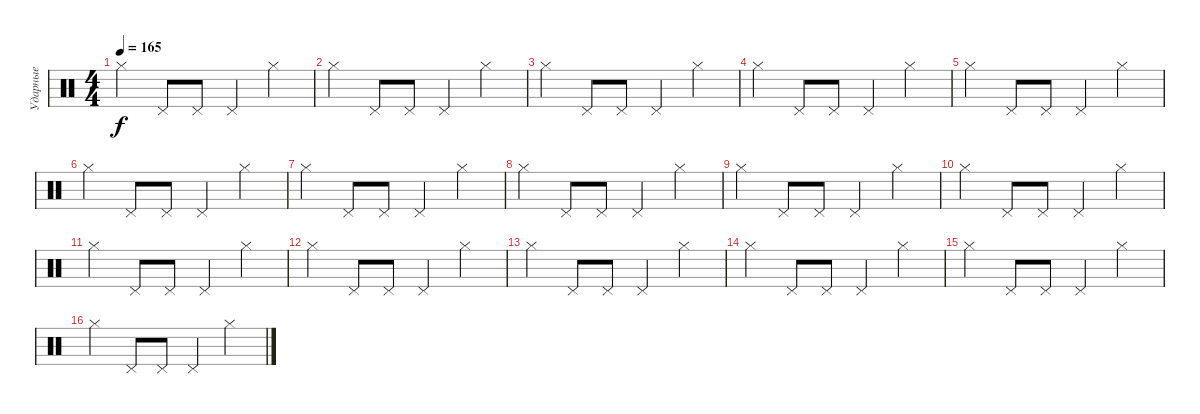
\track ("Ударные" "Ударные") {instrument percussion}
\staff {score}
\articulation defaults
\ts (4 4)
\tempo 165
\clef neutral
\ks c "Hi-Hat (closed)".4{dy f} "Pedal Hi-Hat (hit)".8 "Pedal Hi-Hat (hit)".8 "Pedal Hi-Hat (hit)".4 "Hi-Hat (closed)".4
|
"Hi-Hat (closed)".4 "Pedal Hi-Hat (hit)".8 "Pedal Hi-Hat (hit)".8 "Pedal Hi-Hat (hit)".4 "Hi-Hat (closed)".4 |
"Hi-Hat (closed)".4 "Pedal Hi-Hat (hit)".8 "Pedal Hi-Hat (hit)".8 "Pedal Hi-Hat (hit)".4 "Hi-Hat (closed)".4 |
"Hi-Hat (closed)".4 "Pedal Hi-Hat (hit)".8 "Pedal Hi-Hat (hit)".8 "Pedal Hi-Hat (hit)".4 "Hi-Hat (closed)".4 |
"Hi-Hat (closed)".4 "Pedal Hi-Hat (hit)".8 "Pedal Hi-Hat (hit)".8 "Pedal Hi-Hat (hit)".4 "Hi-Hat (closed)".4 |
"Hi-Hat (closed)".4 "Pedal Hi-Hat (hit)".8 "Pedal Hi-Hat (hit)".8 "Pedal Hi-Hat (hit)".4 "Hi-Hat (closed)".4 |
"Hi-Hat (closed)".4 "Pedal Hi-Hat (hit)".8 "Pedal Hi-Hat (hit)".8 "Pedal Hi-Hat (hit)".4 "Hi-Hat (closed)".4 |
"Hi-Hat (closed)".4 "Pedal Hi-Hat (hit)".8 "Pedal Hi-Hat (hit)".8 "Pedal Hi-Hat (hit)".4 "Hi-Hat (closed)".4 |
"Hi-Hat (closed)".4 "Pedal Hi-Hat (hit)".8 "Pedal Hi-Hat (hit)".8 "Pedal Hi-Hat (hit)".4 "Hi-Hat (closed)".4 |
"Hi-Hat (closed)".4 "Pedal Hi-Hat (hit)".8 "Pedal Hi-Hat (hit)".8 "Pedal Hi-Hat (hit)".4 "Hi-Hat (closed)".4 |
"Hi-Hat (closed)".4 "Pedal Hi-Hat (hit)".8 "Pedal Hi-Hat (hit)".8 "Pedal Hi-Hat (hit)".4 "Hi-Hat (closed)".4 |
"Hi-Hat (closed)".4 "Pedal Hi-Hat (hit)".8 "Pedal Hi-Hat (hit)".8 "Pedal Hi-Hat (hit)".4 "Hi-Hat (closed)".4 |
"Hi-Hat (closed)".4 "Pedal Hi-Hat (hit)".8 "Pedal Hi-Hat (hit)".8 "Pedal Hi-Hat (hit)".4 "Hi-Hat (closed)".4 |
"Hi-Hat (closed)".4 "Pedal Hi-Hat (hit)".8 "Pedal Hi-Hat (hit)".8 "Pedal Hi-Hat (hit)".4 "Hi-Hat (closed)".4 |
"Hi-Hat (closed)".4 "Pedal Hi-Hat (hit)".8 "Pedal Hi-Hat (hit)".8 "Pedal Hi-Hat (hit)".4 "Hi-Hat (closed)".4 |
"Hi-Hat (closed)".4 "Pedal Hi-Hat (hit)".8 "Pedal Hi-Hat (hit)".8 "Pedal Hi-Hat (hit)".4 "Hi-Hat (closed)".4
